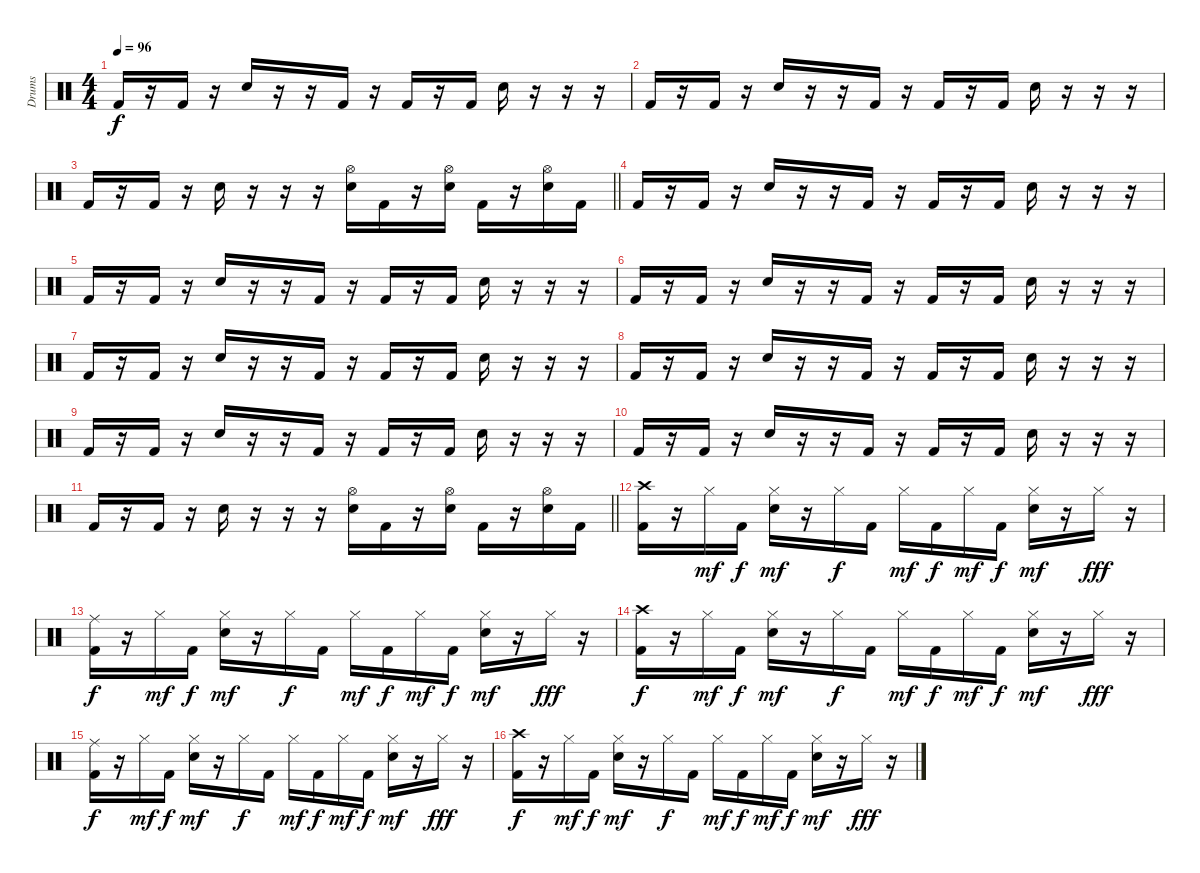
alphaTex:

\track ("Drums" "Drums") {instrument percussion}
\staff {score}
\articulation defaults
\ts (4 4)
\tempo 96
\clef neutral
\ks c "Kick (hit) 2".16{dy f}
r.16 "Kick (hit) 2".16 r.16 "Electric Snare (hit)".16 r.16 r.16 "Kick (hit) 2".16 r.16 "Kick (hit) 2".16 r.16 "Kick (hit) 2".16 "Electric Snare (hit)".16 r.16 r.16 r.16 |
"Kick (hit) 2".16 r.16 "Kick (hit) 2".16 r.16 "Electric Snare (hit)".16 r.16 r.16 "Kick (hit) 2".16 r.16 "Kick (hit) 2".16 r.16 "Kick (hit) 2".16 "Electric Snare (hit)".16 r.16 r.16 r.16 |
\barLineRight lightlight "Kick (hit) 2".16
r.16 "Kick (hit) 2".16 r.16 "Electric Snare (hit)".16 r.16 r.16 r.16 ("Hi-Hat (open)" "Electric Snare (hit)").16 "Kick (hit) 2".16 r.16 ("Hi-Hat (open)" "Electric Snare (hit)").16 "Kick (hit) 2".16 r.16 ("Hi-Hat (open)" "Electric Snare (hit)").16 "Kick (hit) 2".16 |
"Kick (hit) 2".16 r.16 "Kick (hit) 2".16 r.16 "Electric Snare (hit)".16 r.16 r.16 "Kick (hit) 2".16 r.16 "Kick (hit) 2".16 r.16 "Kick (hit) 2".16 "Electric Snare (hit)".16 r.16 r.16 r.16 |
"Kick (hit) 2".16 r.16 "Kick (hit) 2".16 r.16 "Electric Snare (hit)".16 r.16 r.16 "Kick (hit) 2".16 r.16 "Kick (hit) 2".16 r.16 "Kick (hit) 2".16 "Electric Snare (hit)".16 r.16 r.16 r.16 |
"Kick (hit) 2".16 r.16 "Kick (hit) 2".16 r.16 "Electric Snare (hit)".16 r.16 r.16 "Kick (hit) 2".16 r.16 "Kick (hit) 2".16 r.16 "Kick (hit) 2".16 "Electric Snare (hit)".16 r.16 r.16 r.16 |
"Kick (hit) 2".16 r.16 "Kick (hit) 2".16 r.16 "Electric Snare (hit)".16 r.16 r.16 "Kick (hit) 2".16 r.16 "Kick (hit) 2".16 r.16 "Kick (hit) 2".16 "Electric Snare (hit)".16 r.16 r.16 r.16 |
"Kick (hit) 2".16 r.16 "Kick (hit) 2".16 r.16 "Electric Snare (hit)".16 r.16 r.16 "Kick (hit) 2".16 r.16 "Kick (hit) 2".16 r.16 "Kick (hit) 2".16 "Electric Snare (hit)".16 r.16 r.16 r.16 |
"Kick (hit) 2".16 r.16 "Kick (hit) 2".16 r.16 "Electric Snare (hit)".16 r.16 r.16 "Kick (hit) 2".16 r.16 "Kick (hit) 2".16 r.16 "Kick (hit) 2".16 "Electric Snare (hit)".16 r.16 r.16 r.16 |
"Kick (hit) 2".16 r.16 "Kick (hit) 2".16 r.16 "Electric Snare (hit)".16 r.16 r.16 "Kick (hit) 2".16 r.16 "Kick (hit) 2".16 r.16 "Kick (hit) 2".16 "Electric Snare (hit)".16 r.16 r.16 r.16 |
\barLineRight lightlight "Kick (hit) 2".16
r.16 "Kick (hit) 2".16 r.16 "Electric Snare (hit)".16 r.16 r.16 r.16 ("Hi-Hat (open)" "Electric Snare (hit)").16 "Kick (hit) 2".16 r.16 ("Hi-Hat (open)" "Electric Snare (hit)").16 "Kick (hit) 2".16 r.16 ("Hi-Hat (open)" "Electric Snare (hit)").16 "Kick (hit) 2".16 |
("Crash high (hit)" "Kick (hit) 2").16 r.16 "Hi-Hat (closed)".16{dy mf} "Kick (hit) 2".16{dy f} ("Hi-Hat (closed)" "Electric Snare (hit)").16{dy mf} r.16 "Hi-Hat (closed)".16{dy f} "Kick (hit) 2".16 "Hi-Hat (closed)".16{dy mf} "Kick (hit) 2".16{dy f} "Hi-Hat (closed)".16{dy mf} "Kick (hit) 2".16{dy f} ("Hi-Hat (closed)" "Electric Snare (hit)").16{dy mf} r.16 "Hi-Hat (closed)".16{dy fff} r.16 |
("Ride (middle)" "Kick (hit) 2").16{dy f} r.16 "Hi-Hat (closed)".16{dy mf} "Kick (hit) 2".16{dy f} ("Hi-Hat (closed)" "Electric Snare (hit)").16{dy mf} r.16 "Hi-Hat (closed)".16{dy f} "Kick (hit) 2".16 "Hi-Hat (closed)".16{dy mf} "Kick (hit) 2".16{dy f} "Hi-Hat (closed)".16{dy mf} "Kick (hit) 2".16{dy f} ("Hi-Hat (closed)" "Electric Snare (hit)").16{dy mf} r.16 "Hi-Hat (closed)".16{dy fff} r.16 |
("Crash high (hit)" "Kick (hit) 2").16{dy f} r.16 "Hi-Hat (closed)".16{dy mf} "Kick (hit) 2".16{dy f} ("Hi-Hat (closed)" "Electric Snare (hit)").16{dy mf} r.16 "Hi-Hat (closed)".16{dy f} "Kick (hit) 2".16 "Hi-Hat (closed)".16{dy mf} "Kick (hit) 2".16{dy f} "Hi-Hat (closed)".16{dy mf} "Kick (hit) 2".16{dy f} ("Hi-Hat (closed)" "Electric Snare (hit)").16{dy mf} r.16 "Hi-Hat (closed)".16{dy fff} r.16 |
("Ride (middle)" "Kick (hit) 2").16{dy f} r.16 "Hi-Hat (closed)".16{dy mf} "Kick (hit) 2".16{dy f} ("Hi-Hat (closed)" "Electric Snare (hit)").16{dy mf} r.16 "Hi-Hat (closed)".16{dy f} "Kick (hit) 2".16 "Hi-Hat (closed)".16{dy mf} "Kick (hit) 2".16{dy f} "Hi-Hat (closed)".16{dy mf} "Kick (hit) 2".16{dy f} ("Hi-Hat (closed)" "Electric Snare (hit)").16{dy mf} r.16 "Hi-Hat (closed)".16{dy fff} r.16 |
("Crash high (hit)" "Kick (hit) 2").16{dy f} r.16 "Hi-Hat (closed)".16{dy mf} "Kick (hit) 2".16{dy f} ("Hi-Hat (closed)" "Electric Snare (hit)").16{dy mf} r.16 "Hi-Hat (closed)".16{dy f} "Kick (hit) 2".16 "Hi-Hat (closed)".16{dy mf} "Kick (hit) 2".16{dy f} "Hi-Hat (closed)".16{dy mf} "Kick (hit) 2".16{dy f} ("Hi-Hat (closed)" "Electric Snare (hit)").16{dy mf} r.16 "Hi-Hat (closed)".16{dy fff} r.16
